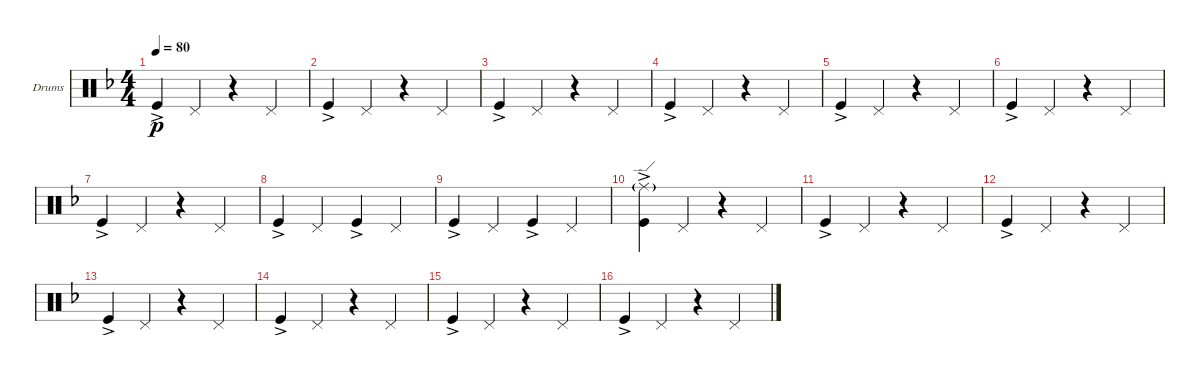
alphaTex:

\defaultSystemsLayout 4
\bracketExtendMode groupsimilarinstruments
\firstSystemTrackNameOrientation horizontal
\otherSystemsTrackNameOrientation horizontal
\track ("Drumkit" "Drums") {instrument percussion}
\staff {score}
\articulation defaults
\ts (4 4)
\tempo 80
\clef neutral
\ks f "Kick (hit)"{ac}.4{dy p} "Pedal Hi-Hat (hit)".4
r.4 "Pedal Hi-Hat (hit)".4 |
"Kick (hit)"{ac}.4 "Pedal Hi-Hat (hit)".4 r.4 "Pedal Hi-Hat (hit)".4 |
"Kick (hit)"{ac}.4 "Pedal Hi-Hat (hit)".4 r.4 "Pedal Hi-Hat (hit)".4 |
"Kick (hit)"{ac}.4 "Pedal Hi-Hat (hit)".4 r.4 "Pedal Hi-Hat (hit)".4 |
"Kick (hit)"{ac}.4 "Pedal Hi-Hat (hit)".4 r.4 "Pedal Hi-Hat (hit)".4 |
"Kick (hit)"{ac}.4 "Pedal Hi-Hat (hit)".4 r.4 "Pedal Hi-Hat (hit)".4 |
"Kick (hit)"{ac}.4 "Pedal Hi-Hat (hit)".4 r.4 "Pedal Hi-Hat (hit)".4 |
"Kick (hit)"{ac}.4 "Pedal Hi-Hat (hit)".4 "Kick (hit)"{ac}.4 "Pedal Hi-Hat (hit)".4 |
"Kick (hit)"{ac}.4 "Pedal Hi-Hat (hit)".4 "Kick (hit)"{ac}.4 "Pedal Hi-Hat (hit)".4 |
("Kick (hit)"{ac} "Ride (edge)"{g}).4 "Pedal Hi-Hat (hit)".4 r.4 "Pedal Hi-Hat (hit)".4 |
"Kick (hit)"{ac}.4 "Pedal Hi-Hat (hit)".4 r.4 "Pedal Hi-Hat (hit)".4 |
"Kick (hit)"{ac}.4 "Pedal Hi-Hat (hit)".4 r.4 "Pedal Hi-Hat (hit)".4 |
"Kick (hit)"{ac}.4 "Pedal Hi-Hat (hit)".4 r.4 "Pedal Hi-Hat (hit)".4 |
"Kick (hit)"{ac}.4 "Pedal Hi-Hat (hit)".4 r.4 "Pedal Hi-Hat (hit)".4 |
"Kick (hit)"{ac}.4 "Pedal Hi-Hat (hit)".4 r.4 "Pedal Hi-Hat (hit)".4 |
"Kick (hit)"{ac}.4 "Pedal Hi-Hat (hit)".4 r.4 "Pedal Hi-Hat (hit)".4
